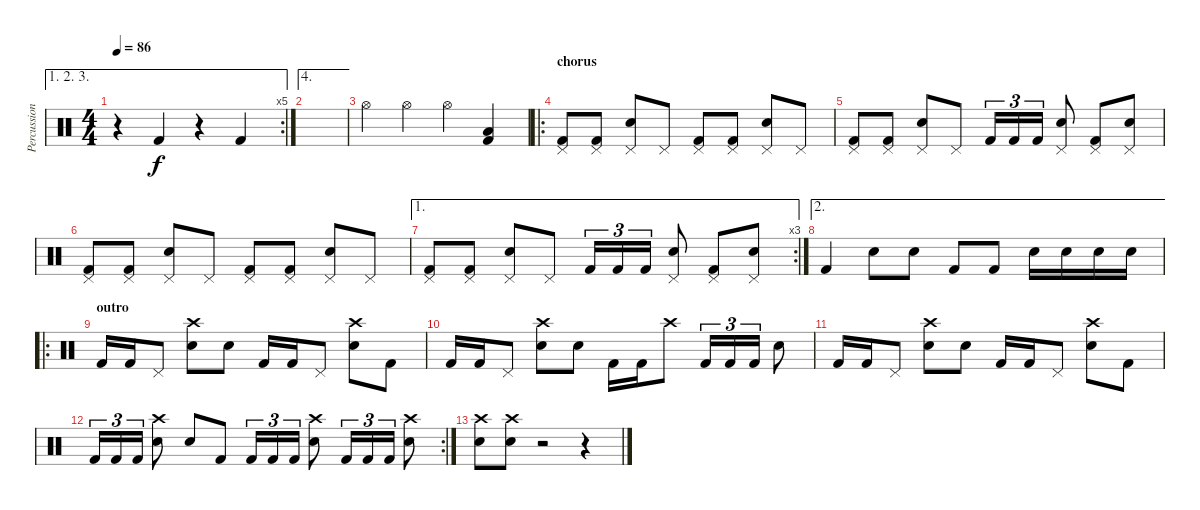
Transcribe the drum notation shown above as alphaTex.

\track ("Percussion" "Percussion") {instrument percussion}
\staff {score}
\articulation defaults
\ae (1 2 3)
\rc 5
\ts (4 4)
\tempo 86
\clef neutral
\ks c
r.4{dy f} "Kick (hit) 2".4 r.4 "Kick (hit) 2".4 |
\ae 4
|
"Hi-Hat (open)".4 "Hi-Hat (open)".4 "Hi-Hat (open)".4 ("Low Tom (hit)" "Kick (hit) 2").4 |
\ro
\section ("" "chorus")
("Pedal Hi-Hat (hit)" "Kick (hit) 2").8 ("Pedal Hi-Hat (hit)" "Kick (hit) 2").8 ("Pedal Hi-Hat (hit)" "Electric Snare (hit)").8 "Pedal Hi-Hat (hit)".8 ("Pedal Hi-Hat (hit)" "Kick (hit) 2").8 ("Pedal Hi-Hat (hit)" "Kick (hit) 2").8 ("Pedal Hi-Hat (hit)" "Electric Snare (hit)").8 "Pedal Hi-Hat (hit)".8 |
("Pedal Hi-Hat (hit)" "Kick (hit) 2").8 ("Pedal Hi-Hat (hit)" "Kick (hit) 2").8 ("Pedal Hi-Hat (hit)" "Electric Snare (hit)").8 "Pedal Hi-Hat (hit)".8 "Kick (hit) 2".16{tu (3 2)} "Kick (hit) 2".16{tu (3 2)} "Kick (hit) 2".16{tu (3 2)} ("Pedal Hi-Hat (hit)" "Electric Snare (hit)").8 ("Pedal Hi-Hat (hit)" "Kick (hit) 2").8 ("Pedal Hi-Hat (hit)" "Electric Snare (hit)").8 |
("Pedal Hi-Hat (hit)" "Kick (hit) 2").8 ("Pedal Hi-Hat (hit)" "Kick (hit) 2").8 ("Pedal Hi-Hat (hit)" "Electric Snare (hit)").8 "Pedal Hi-Hat (hit)".8 ("Pedal Hi-Hat (hit)" "Kick (hit) 2").8 ("Pedal Hi-Hat (hit)" "Kick (hit) 2").8 ("Pedal Hi-Hat (hit)" "Electric Snare (hit)").8 "Pedal Hi-Hat (hit)".8 |
\ae 1
\rc 3
("Pedal Hi-Hat (hit)" "Kick (hit) 2").8 ("Pedal Hi-Hat (hit)" "Kick (hit) 2").8 ("Pedal Hi-Hat (hit)" "Electric Snare (hit)").8 "Pedal Hi-Hat (hit)".8 "Kick (hit) 2".16{tu (3 2)} "Kick (hit) 2".16{tu (3 2)} "Kick (hit) 2".16{tu (3 2)} ("Pedal Hi-Hat (hit)" "Electric Snare (hit)").8 ("Pedal Hi-Hat (hit)" "Kick (hit) 2").8 ("Pedal Hi-Hat (hit)" "Electric Snare (hit)").8 |
\ae 2 "Kick (hit) 2".4 "Electric Snare (hit)".8 "Electric Snare (hit)".8 "Kick (hit) 2".8 "Kick (hit) 2".8 "Electric Snare (hit)".16 "Electric Snare (hit)".16 "Electric Snare (hit)".16 "Electric Snare (hit)".16
|
\ro
\section ("" "outro")
"Kick (hit) 2".16 "Kick (hit) 2".16 "Pedal Hi-Hat (hit)".8 ("Crash high (hit)" "Electric Snare (hit)").8 "Electric Snare (hit)".8 "Kick (hit) 2".16 "Kick (hit) 2".16 "Pedal Hi-Hat (hit)".8 ("Crash high (hit)" "Electric Snare (hit)").8 "Kick (hit) 2".8 |
"Kick (hit) 2".16 "Kick (hit) 2".16 "Pedal Hi-Hat (hit)".8 ("Crash high (hit)" "Electric Snare (hit)").8 "Electric Snare (hit)".8 "Kick (hit) 2".16 "Kick (hit) 2".16 "Crash high (hit)".8 "Kick (hit) 2".16{tu (3 2)} "Kick (hit) 2".16{tu (3 2)} "Kick (hit) 2".16{tu (3 2)} "Electric Snare (hit)".8 |
"Kick (hit) 2".16 "Kick (hit) 2".16 "Pedal Hi-Hat (hit)".8 ("Crash high (hit)" "Electric Snare (hit)").8 "Electric Snare (hit)".8 "Kick (hit) 2".16 "Kick (hit) 2".16 "Pedal Hi-Hat (hit)".8 ("Crash high (hit)" "Electric Snare (hit)").8 "Kick (hit) 2".8 |
\rc 2 "Kick (hit) 2".16{tu (3 2)} "Kick (hit) 2".16{tu (3 2)} "Kick (hit) 2".16{tu (3 2)}
("Crash high (hit)" "Electric Snare (hit)").8 "Electric Snare (hit)".8 "Kick (hit) 2".8 "Kick (hit) 2".16{tu (3 2)} "Kick (hit) 2".16{tu (3 2)} "Kick (hit) 2".16{tu (3 2)} ("Crash high (hit)" "Electric Snare (hit)").8 "Kick (hit) 2".16{tu (3 2)} "Kick (hit) 2".16{tu (3 2)} "Kick (hit) 2".16{tu (3 2)} ("Crash high (hit)" "Electric Snare (hit)").8 |
("Crash high (hit)" "Electric Snare (hit)").8 ("Crash high (hit)" "Electric Snare (hit)").8 r.2 r.4
